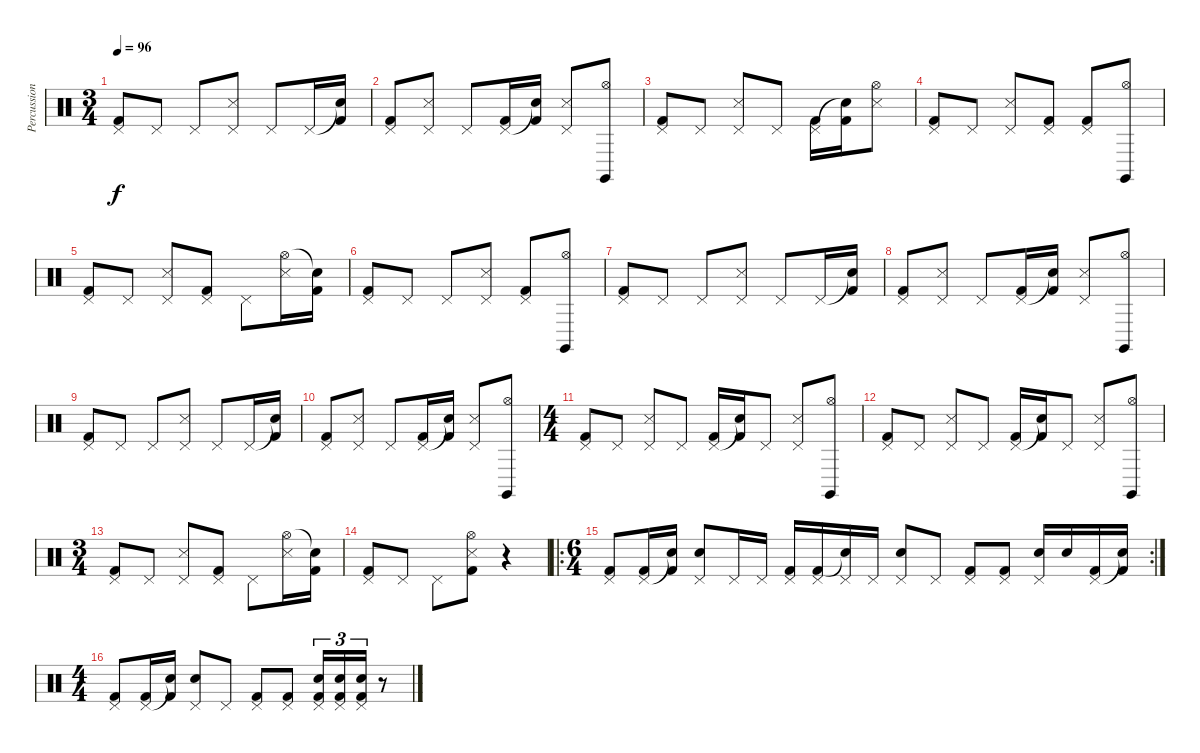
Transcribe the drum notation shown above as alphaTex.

\track ("Percussion" "Percussion") {instrument percussion}
\staff {score}
\articulation defaults
\ts (3 4)
\tempo 96
\clef neutral
\ks c
("Pedal Hi-Hat (hit)" "Kick (hit) 2").8{dy f} "Pedal Hi-Hat (hit)".8 "Pedal Hi-Hat (hit)".8 ("Pedal Hi-Hat (hit)" "Snare (side stick) 3").8 "Pedal Hi-Hat (hit)".8 "Pedal Hi-Hat (hit)".16 ("Snare (hit)"{t} "Kick (hit) 2").16 |
("Pedal Hi-Hat (hit)" "Kick (hit) 2").8 ("Pedal Hi-Hat (hit)" "Snare (side stick) 3").8 "Pedal Hi-Hat (hit)".8 ("Pedal Hi-Hat (hit)" "Kick (hit) 2").16 ("Snare (hit)"{t} "Kick (hit) 2").16 ("Pedal Hi-Hat (hit)" "Snare (side stick) 3").8 ("Hi-Hat (open)" "Claves (hit)").8 |
("Pedal Hi-Hat (hit)" "Kick (hit) 2").8 "Pedal Hi-Hat (hit)".8 ("Pedal Hi-Hat (hit)" "Snare (side stick) 3").8 "Pedal Hi-Hat (hit)".8 ("Pedal Hi-Hat (hit)" "Kick (hit) 2").16 ("Snare (hit)"{t} "Kick (hit) 2").16 ("Hi-Hat (open)" "Snare (side stick) 3").8 |
("Pedal Hi-Hat (hit)" "Kick (hit) 2").8 "Pedal Hi-Hat (hit)".8 ("Pedal Hi-Hat (hit)" "Snare (side stick) 3").8 ("Pedal Hi-Hat (hit)" "Kick (hit) 2").8 ("Pedal Hi-Hat (hit)" "Kick (hit) 2").8 ("Hi-Hat (open)" "Claves (hit)").8 |
("Pedal Hi-Hat (hit)" "Kick (hit) 2").8 "Pedal Hi-Hat (hit)".8 ("Pedal Hi-Hat (hit)" "Snare (side stick) 3").8 ("Pedal Hi-Hat (hit)" "Kick (hit) 2").8 "Pedal Hi-Hat (hit)".8 ("Hi-Hat (open)" "Snare (side stick) 3").16 ("Snare (hit)"{t} "Kick (hit) 2").16 |
("Pedal Hi-Hat (hit)" "Kick (hit) 2").8 "Pedal Hi-Hat (hit)".8 "Pedal Hi-Hat (hit)".8 ("Pedal Hi-Hat (hit)" "Snare (side stick) 3").8 ("Pedal Hi-Hat (hit)" "Kick (hit) 2").8 ("Hi-Hat (open)" "Claves (hit)").8 |
("Pedal Hi-Hat (hit)" "Kick (hit) 2").8 "Pedal Hi-Hat (hit)".8 "Pedal Hi-Hat (hit)".8 ("Pedal Hi-Hat (hit)" "Snare (side stick) 3").8 "Pedal Hi-Hat (hit)".8 "Pedal Hi-Hat (hit)".16 ("Snare (hit)"{t} "Kick (hit) 2").16 |
("Pedal Hi-Hat (hit)" "Kick (hit) 2").8 ("Pedal Hi-Hat (hit)" "Snare (side stick) 3").8 "Pedal Hi-Hat (hit)".8 ("Pedal Hi-Hat (hit)" "Kick (hit) 2").16 ("Snare (hit)"{t} "Kick (hit) 2").16 ("Pedal Hi-Hat (hit)" "Snare (side stick) 3").8 ("Hi-Hat (open)" "Claves (hit)").8 |
("Pedal Hi-Hat (hit)" "Kick (hit) 2").8 "Pedal Hi-Hat (hit)".8 "Pedal Hi-Hat (hit)".8 ("Pedal Hi-Hat (hit)" "Snare (side stick) 3").8 "Pedal Hi-Hat (hit)".8 "Pedal Hi-Hat (hit)".16 ("Snare (hit)"{t} "Kick (hit) 2").16 |
("Pedal Hi-Hat (hit)" "Kick (hit) 2").8 ("Pedal Hi-Hat (hit)" "Snare (side stick) 3").8 "Pedal Hi-Hat (hit)".8 ("Pedal Hi-Hat (hit)" "Kick (hit) 2").16 ("Snare (hit)"{t} "Kick (hit) 2").16 ("Pedal Hi-Hat (hit)" "Snare (side stick) 3").8 ("Hi-Hat (open)" "Claves (hit)").8 |
\ts (4 4)
("Pedal Hi-Hat (hit)" "Kick (hit) 2").8 "Pedal Hi-Hat (hit)".8 ("Pedal Hi-Hat (hit)" "Snare (side stick) 3").8 "Pedal Hi-Hat (hit)".8 ("Pedal Hi-Hat (hit)" "Kick (hit) 2").16 ("Snare (hit)"{t} "Kick (hit) 2").16 "Pedal Hi-Hat (hit)".8 ("Pedal Hi-Hat (hit)" "Snare (side stick) 3").8 ("Hi-Hat (open)" "Claves (hit)").8 |
("Pedal Hi-Hat (hit)" "Kick (hit) 2").8 "Pedal Hi-Hat (hit)".8 ("Pedal Hi-Hat (hit)" "Snare (side stick) 3").8 "Pedal Hi-Hat (hit)".8 ("Pedal Hi-Hat (hit)" "Kick (hit) 2").16 ("Snare (hit)"{t} "Kick (hit) 2").16 "Pedal Hi-Hat (hit)".8 ("Pedal Hi-Hat (hit)" "Snare (side stick) 3").8 ("Hi-Hat (open)" "Claves (hit)").8 |
\ts (3 4)
("Pedal Hi-Hat (hit)" "Kick (hit) 2").8 "Pedal Hi-Hat (hit)".8 ("Pedal Hi-Hat (hit)" "Snare (side stick) 3").8 ("Pedal Hi-Hat (hit)" "Kick (hit) 2").8 "Pedal Hi-Hat (hit)".8 ("Hi-Hat (open)" "Snare (side stick) 3").16 ("Snare (hit)"{t} "Kick (hit) 2").16 |
("Pedal Hi-Hat (hit)" "Kick (hit) 2").8 "Pedal Hi-Hat (hit)".8 "Pedal Hi-Hat (hit)".8 ("Hi-Hat (open)" "Snare (side stick) 3" "Kick (hit) 2").8 r.4 |
\ro
\rc 2
\ts (6 4)
("Pedal Hi-Hat (hit)" "Kick (hit) 2").8 ("Pedal Hi-Hat (hit)" "Kick (hit) 2").16 ("Snare (hit)"{t} "Kick (hit) 2").16 ("Pedal Hi-Hat (hit)" "Snare (hit) 2").8 "Pedal Hi-Hat (hit)".16 "Pedal Hi-Hat (hit)".16 ("Pedal Hi-Hat (hit)" "Kick (hit) 2").16 ("Pedal Hi-Hat (hit)" "Kick (hit) 2").16 ("Pedal Hi-Hat (hit)" "Snare (hit)"{t}).16 "Pedal Hi-Hat (hit)".16 ("Pedal Hi-Hat (hit)" "Snare (hit) 2").8 "Pedal Hi-Hat (hit)".8 ("Pedal Hi-Hat (hit)" "Kick (hit) 2").8 ("Pedal Hi-Hat (hit)" "Kick (hit) 2").8 ("Pedal Hi-Hat (hit)" "Snare (hit) 2").16 "Snare (hit) 2".16 ("Pedal Hi-Hat (hit)" "Kick (hit) 2").16 ("Snare (hit)"{t} "Kick (hit) 2").16 |
\ts (4 4)
("Pedal Hi-Hat (hit)" "Kick (hit) 2").8 ("Pedal Hi-Hat (hit)" "Kick (hit) 2").16 ("Snare (hit)"{t} "Kick (hit) 2").16 ("Pedal Hi-Hat (hit)" "Snare (hit) 2").8 "Pedal Hi-Hat (hit)".8 ("Pedal Hi-Hat (hit)" "Kick (hit) 2").8 ("Pedal Hi-Hat (hit)" "Kick (hit) 2").8 ("Pedal Hi-Hat (hit)" "Snare (hit) 2" "Kick (hit) 2").16{tu (3 2)} ("Pedal Hi-Hat (hit)" "Snare (hit) 2" "Kick (hit) 2").16{tu (3 2)} ("Pedal Hi-Hat (hit)" "Snare (hit) 2" "Kick (hit) 2").16{tu (3 2)} r.8
